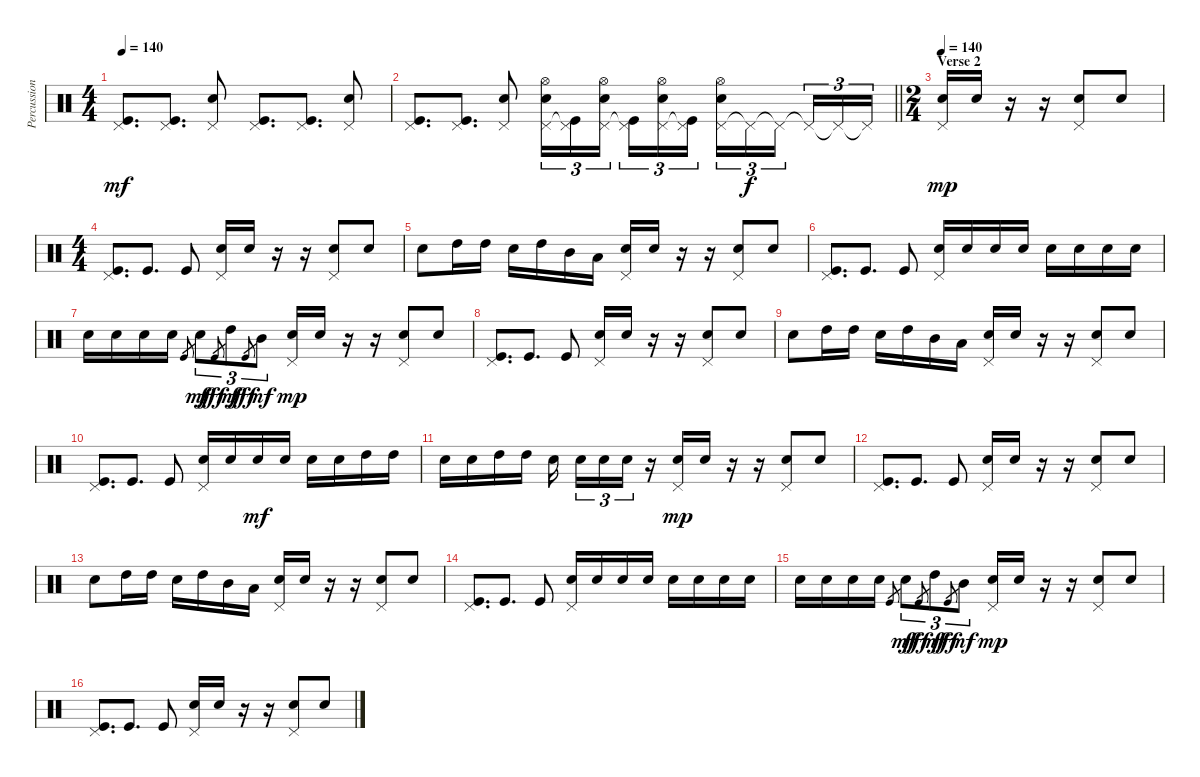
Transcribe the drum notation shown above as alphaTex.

\track ("Percussion" "Percussion") {instrument percussion}
\staff {score}
\articulation defaults
\ts (4 4)
\tempo 140
\clef neutral
\ks c
("Pedal Hi-Hat (hit)" "Kick (hit)").8{d dy mf} ("Pedal Hi-Hat (hit)" "Kick (hit)").8{d} ("Pedal Hi-Hat (hit)" "Electric Snare (hit)").8 ("Pedal Hi-Hat (hit)" "Kick (hit)").8{d} ("Pedal Hi-Hat (hit)" "Kick (hit)").8{d} ("Pedal Hi-Hat (hit)" "Electric Snare (hit)").8 |
\barLineRight lightlight
("Pedal Hi-Hat (hit)" "Kick (hit)").8{d} ("Pedal Hi-Hat (hit)" "Kick (hit)").8{d} ("Pedal Hi-Hat (hit)" "Electric Snare (hit)").8 ("Pedal Hi-Hat (hit)" "Hi-Hat (open)" "Electric Snare (hit)").16{tu (3 2)} ("Pedal Hi-Hat (hit)"{t} "Kick (hit)").16{tu (3 2)} ("Pedal Hi-Hat (hit)" "Hi-Hat (open)" "Electric Snare (hit)").16{tu (3 2) beam splitsecondary} ("Pedal Hi-Hat (hit)"{t} "Kick (hit)").16{tu (3 2)} ("Pedal Hi-Hat (hit)" "Hi-Hat (open)" "Electric Snare (hit)").16{tu (3 2)} ("Pedal Hi-Hat (hit)"{t} "Kick (hit)").16{tu (3 2)} ("Pedal Hi-Hat (hit)" "Hi-Hat (open)" "Electric Snare (hit)").16{tu (3 2)} "Pedal Hi-Hat (hit)"{t}.16{tu (3 2) dy f} "Pedal Hi-Hat (hit)"{t}.16{tu (3 2) beam splitsecondary} "Pedal Hi-Hat (hit)"{t}.16{tu (3 2)} "Pedal Hi-Hat (hit)"{t}.16{tu (3 2)} "Pedal Hi-Hat (hit)"{t}.16{tu (3 2)} |
\ts (2 4)
\section ("" "Verse 2")
\tempo 80
\tempo 140
("Pedal Hi-Hat (hit)" "Electric Snare (hit)").16{dy mp} "Electric Snare (hit)".16 r.16 r.16 ("Pedal Hi-Hat (hit)" "Electric Snare (hit)").8 "Electric Snare (hit)".8 |
\ts (4 4)
("Pedal Hi-Hat (hit)" "Kick (hit)").8{d} "Kick (hit)".8{d} "Kick (hit)".8 ("Pedal Hi-Hat (hit)" "Electric Snare (hit)").16 "Electric Snare (hit)".16 r.16 r.16 ("Pedal Hi-Hat (hit)" "Electric Snare (hit)").8 "Electric Snare (hit)".8 |
"Electric Snare (hit)".8 "High Tom (hit)".16 "High Tom (hit)".16 "Electric Snare (hit)".16 "High Tom (hit)".16 "Mid Tom (hit)".16 "Low Tom (hit)".16 ("Pedal Hi-Hat (hit)" "Electric Snare (hit)").16 "Electric Snare (hit)".16 r.16 r.16 ("Pedal Hi-Hat (hit)" "Electric Snare (hit)").8 "Electric Snare (hit)".8 |
("Pedal Hi-Hat (hit)" "Kick (hit)").8{d} "Kick (hit)".8{d} "Kick (hit)".8 ("Pedal Hi-Hat (hit)" "Electric Snare (hit)").16 "Electric Snare (hit)".16 "Electric Snare (hit)".16 "Electric Snare (hit)".16 "Electric Snare (hit)".16 "Electric Snare (hit)".16 "Electric Snare (hit)".16 "Electric Snare (hit)".16 |
"Electric Snare (hit)".16 "Electric Snare (hit)".16 "Electric Snare (hit)".16 "Electric Snare (hit)".16 "Kick (hit)".8{gr} "Electric Snare (hit)".8{tu (3 2) dy mf} "Kick (hit)".8{gr dy fff} "High Tom (hit)".8{tu (3 2) dy mf} "Kick (hit)".8{gr dy fff} "Mid Tom (hit)".8{tu (3 2) dy mf} ("Pedal Hi-Hat (hit)" "Electric Snare (hit)").16{dy mp} "Electric Snare (hit)".16 r.16 r.16 ("Pedal Hi-Hat (hit)" "Electric Snare (hit)").8 "Electric Snare (hit)".8 |
("Pedal Hi-Hat (hit)" "Kick (hit)").8{d} "Kick (hit)".8{d} "Kick (hit)".8 ("Pedal Hi-Hat (hit)" "Electric Snare (hit)").16 "Electric Snare (hit)".16 r.16 r.16 ("Pedal Hi-Hat (hit)" "Electric Snare (hit)").8 "Electric Snare (hit)".8 |
"Electric Snare (hit)".8 "High Tom (hit)".16 "High Tom (hit)".16 "Electric Snare (hit)".16 "High Tom (hit)".16 "Mid Tom (hit)".16 "Low Tom (hit)".16 ("Pedal Hi-Hat (hit)" "Electric Snare (hit)").16 "Electric Snare (hit)".16 r.16 r.16 ("Pedal Hi-Hat (hit)" "Electric Snare (hit)").8 "Electric Snare (hit)".8 |
("Pedal Hi-Hat (hit)" "Kick (hit)").8{d} "Kick (hit)".8{d} "Kick (hit)".8 ("Pedal Hi-Hat (hit)" "Electric Snare (hit)").16 "Electric Snare (hit)".16 "Electric Snare (hit)".16{dy mf} "Electric Snare (hit)".16 "Electric Snare (hit)".16 "Electric Snare (hit)".16 "High Tom (hit)".16 "High Tom (hit)".16 |
"Electric Snare (hit)".16 "Electric Snare (hit)".16 "High Tom (hit)".16 "High Tom (hit)".16 "Electric Snare (hit)".16{beam splitsecondary} "Electric Snare (hit)".16{tu (3 2)} "Electric Snare (hit)".16{tu (3 2)} "Electric Snare (hit)".16{tu (3 2)} r.16 ("Pedal Hi-Hat (hit)" "Electric Snare (hit)").16{dy mp} "Electric Snare (hit)".16 r.16 r.16 ("Pedal Hi-Hat (hit)" "Electric Snare (hit)").8 "Electric Snare (hit)".8 |
("Pedal Hi-Hat (hit)" "Kick (hit)").8{d} "Kick (hit)".8{d} "Kick (hit)".8 ("Pedal Hi-Hat (hit)" "Electric Snare (hit)").16 "Electric Snare (hit)".16 r.16 r.16 ("Pedal Hi-Hat (hit)" "Electric Snare (hit)").8 "Electric Snare (hit)".8 |
"Electric Snare (hit)".8 "High Tom (hit)".16 "High Tom (hit)".16 "Electric Snare (hit)".16 "High Tom (hit)".16 "Mid Tom (hit)".16 "Low Tom (hit)".16 ("Pedal Hi-Hat (hit)" "Electric Snare (hit)").16 "Electric Snare (hit)".16 r.16 r.16 ("Pedal Hi-Hat (hit)" "Electric Snare (hit)").8 "Electric Snare (hit)".8 |
("Pedal Hi-Hat (hit)" "Kick (hit)").8{d} "Kick (hit)".8{d} "Kick (hit)".8 ("Pedal Hi-Hat (hit)" "Electric Snare (hit)").16 "Electric Snare (hit)".16 "Electric Snare (hit)".16 "Electric Snare (hit)".16 "Electric Snare (hit)".16 "Electric Snare (hit)".16 "Electric Snare (hit)".16 "Electric Snare (hit)".16 |
"Electric Snare (hit)".16 "Electric Snare (hit)".16 "Electric Snare (hit)".16 "Electric Snare (hit)".16 "Kick (hit)".8{gr} "Electric Snare (hit)".8{tu (3 2) dy mf} "Kick (hit)".8{gr dy fff} "High Tom (hit)".8{tu (3 2) dy mf} "Kick (hit)".8{gr dy fff} "Mid Tom (hit)".8{tu (3 2) dy mf} ("Pedal Hi-Hat (hit)" "Electric Snare (hit)").16{dy mp} "Electric Snare (hit)".16 r.16 r.16 ("Pedal Hi-Hat (hit)" "Electric Snare (hit)").8 "Electric Snare (hit)".8 |
("Pedal Hi-Hat (hit)" "Kick (hit)").8{d} "Kick (hit)".8{d} "Kick (hit)".8 ("Pedal Hi-Hat (hit)" "Electric Snare (hit)").16 "Electric Snare (hit)".16 r.16 r.16 ("Pedal Hi-Hat (hit)" "Electric Snare (hit)").8 "Electric Snare (hit)".8
